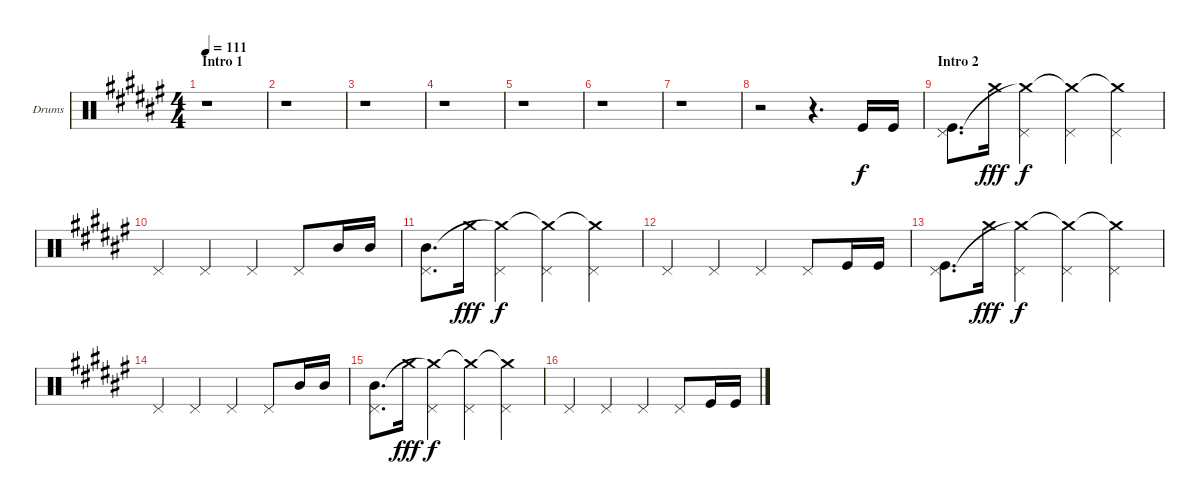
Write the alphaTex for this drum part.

\bracketExtendMode groupsimilarinstruments
\useSystemSignSeparator
\multiTrackTrackNamePolicy allsystems
\firstSystemTrackNameOrientation horizontal
\otherSystemsTrackNameOrientation horizontal
\track ("Drums" "Drums") {instrument percussion}
\staff {score}
\articulation defaults
\ts (4 4)
\section ("" "Intro 1")
\tempo 111
\clef neutral
\ks f#
r.1{dy f} |
r.1 |
r.1 |
r.1 |
r.1 |
r.1 |
r.1 |
r.2 r.4{d} "Kick (hit)".16 "Kick (hit)".16 |
\section ("" "Intro 2")
("Kick (hit)" "Pedal Hi-Hat (hit)").8{d} "Crash medium (hit)".16{dy fff} ("Pedal Hi-Hat (hit)" "Crash medium (hit)"{t}).4{dy f} ("Pedal Hi-Hat (hit)" "Crash medium (hit)"{t}).4 ("Pedal Hi-Hat (hit)" "Crash medium (hit)"{t}).4 |
"Pedal Hi-Hat (hit)".4 "Pedal Hi-Hat (hit)".4 "Pedal Hi-Hat (hit)".4 "Pedal Hi-Hat (hit)".8 "Mid Tom (hit)".16 "Mid Tom (hit)".16 |
("Pedal Hi-Hat (hit)" "Mid Tom (hit)").8{d} "Crash medium (hit)".16{dy fff} ("Pedal Hi-Hat (hit)" "Crash medium (hit)"{t}).4{dy f} ("Pedal Hi-Hat (hit)" "Crash medium (hit)"{t}).4 ("Pedal Hi-Hat (hit)" "Crash medium (hit)"{t}).4 |
"Pedal Hi-Hat (hit)".4 "Pedal Hi-Hat (hit)".4 "Pedal Hi-Hat (hit)".4 "Pedal Hi-Hat (hit)".8 "Kick (hit)".16 "Kick (hit)".16 |
("Kick (hit)" "Pedal Hi-Hat (hit)").8{d} "Crash medium (hit)".16{dy fff} ("Pedal Hi-Hat (hit)" "Crash medium (hit)"{t}).4{dy f} ("Pedal Hi-Hat (hit)" "Crash medium (hit)"{t}).4 ("Pedal Hi-Hat (hit)" "Crash medium (hit)"{t}).4 |
"Pedal Hi-Hat (hit)".4 "Pedal Hi-Hat (hit)".4 "Pedal Hi-Hat (hit)".4 "Pedal Hi-Hat (hit)".8 "Mid Tom (hit)".16 "Mid Tom (hit)".16 |
("Pedal Hi-Hat (hit)" "Mid Tom (hit)").8{d} "Crash medium (hit)".16{dy fff} ("Pedal Hi-Hat (hit)" "Crash medium (hit)"{t}).4{dy f} ("Pedal Hi-Hat (hit)" "Crash medium (hit)"{t}).4 ("Pedal Hi-Hat (hit)" "Crash medium (hit)"{t}).4 |
"Pedal Hi-Hat (hit)".4 "Pedal Hi-Hat (hit)".4 "Pedal Hi-Hat (hit)".4 "Pedal Hi-Hat (hit)".8 "Kick (hit)".16 "Kick (hit)".16
